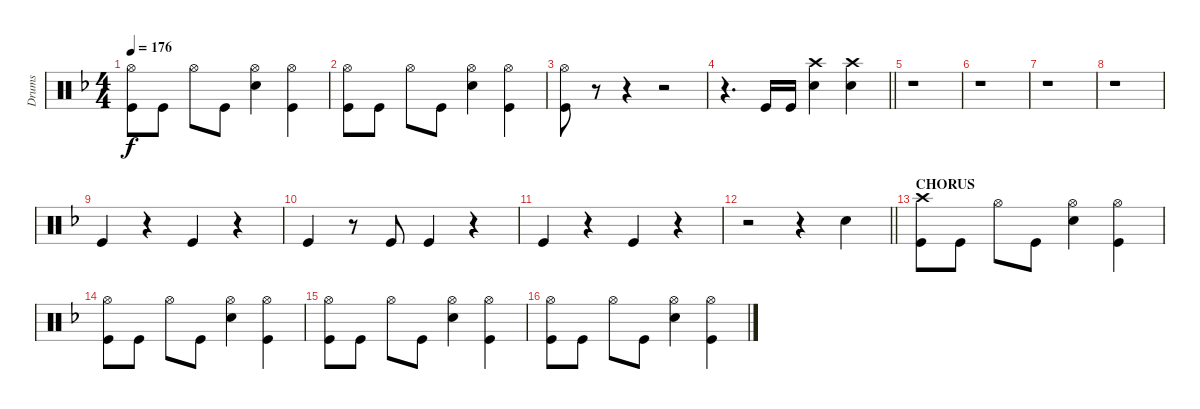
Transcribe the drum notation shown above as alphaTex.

\track ("Drums" "Drums") {instrument percussion}
\staff {score}
\articulation defaults
\ts (4 4)
\tempo 176
\clef neutral
\ks f
("Hi-Hat (open)" "Kick (hit)").8{dy f} "Kick (hit)".8 "Hi-Hat (open)".8 "Kick (hit)".8 ("Hi-Hat (open)" "Snare (hit) 2").4 ("Hi-Hat (open)" "Kick (hit)").4 |
("Hi-Hat (open)" "Kick (hit)").8 "Kick (hit)".8 "Hi-Hat (open)".8 "Kick (hit)".8 ("Hi-Hat (open)" "Snare (hit) 2").4 ("Hi-Hat (open)" "Kick (hit)").4 |
("Hi-Hat (open)" "Kick (hit)").8 r.8 r.4 r.2 |
\barLineRight lightlight
r.4{d} "Kick (hit)".16 "Kick (hit)".16 ("Crash high (hit)" "Snare (hit) 2").4 ("Crash high (hit)" "Snare (hit) 2").4 |
r.1 |
r.1 |
r.1 |
r.1 |
"Kick (hit)".4 r.4 "Kick (hit)".4 r.4 |
"Kick (hit)".4 r.8 "Kick (hit)".8 "Kick (hit)".4 r.4 |
"Kick (hit)".4 r.4 "Kick (hit)".4 r.4 |
\barLineRight lightlight
r.2 r.4 "Snare (hit) 2".4 |
\section ("" "CHORUS")
("Crash high (hit)" "Kick (hit)").8 "Kick (hit)".8 "Hi-Hat (open)".8 "Kick (hit)".8 ("Hi-Hat (open)" "Snare (hit) 2").4 ("Hi-Hat (open)" "Kick (hit)").4 |
("Hi-Hat (open)" "Kick (hit)").8 "Kick (hit)".8 "Hi-Hat (open)".8 "Kick (hit)".8 ("Hi-Hat (open)" "Snare (hit) 2").4 ("Hi-Hat (open)" "Kick (hit)").4 |
("Hi-Hat (open)" "Kick (hit)").8 "Kick (hit)".8 "Hi-Hat (open)".8 "Kick (hit)".8 ("Hi-Hat (open)" "Snare (hit) 2").4 ("Hi-Hat (open)" "Kick (hit)").4 |
("Hi-Hat (open)" "Kick (hit)").8 "Kick (hit)".8 "Hi-Hat (open)".8 "Kick (hit)".8 ("Hi-Hat (open)" "Snare (hit) 2").4 ("Hi-Hat (open)" "Kick (hit)").4
